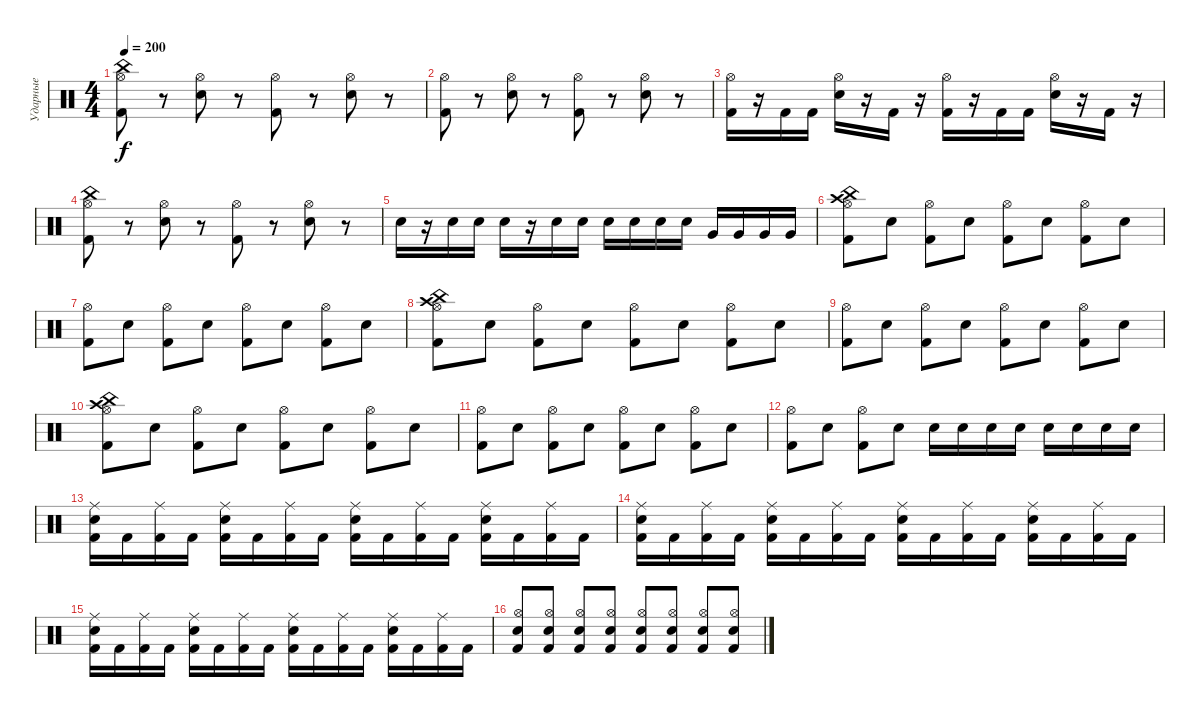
\track ("Ударные" "Ударные") {instrument percussion}
\staff {score}
\articulation defaults
\ts (4 4)
\tempo 200
\clef neutral
\ks c
("Kick (hit) 2" "Hi-Hat (open)" "China (hit)").8{dy f} r.8 ("Electric Snare (hit)" "Hi-Hat (open)").8 r.8 ("Kick (hit) 2" "Hi-Hat (open)").8 r.8 ("Electric Snare (hit)" "Hi-Hat (open)").8 r.8 |
("Kick (hit) 2" "Hi-Hat (open)").8 r.8 ("Electric Snare (hit)" "Hi-Hat (open)").8 r.8 ("Kick (hit) 2" "Hi-Hat (open)").8 r.8 ("Electric Snare (hit)" "Hi-Hat (open)").8 r.8 |
("Kick (hit) 2" "Hi-Hat (open)").16 r.16 "Kick (hit) 2".16 "Kick (hit) 2".16 ("Electric Snare (hit)" "Hi-Hat (open)").16 r.16 "Kick (hit) 2".16 r.16 ("Kick (hit) 2" "Hi-Hat (open)").16 r.16 "Kick (hit) 2".16 "Kick (hit) 2".16 ("Electric Snare (hit)" "Hi-Hat (open)").16 r.16 "Kick (hit) 2".16 r.16 |
("Kick (hit) 2" "Hi-Hat (open)" "China (hit)").8 r.8 ("Electric Snare (hit)" "Hi-Hat (open)").8 r.8 ("Kick (hit) 2" "Hi-Hat (open)").8 r.8 ("Electric Snare (hit)" "Hi-Hat (open)").8 r.8 |
"Electric Snare (hit)".16 r.16 "Electric Snare (hit)".16 "Electric Snare (hit)".16 "Electric Snare (hit)".16 r.16 "Electric Snare (hit)".16 "Electric Snare (hit)".16 "Snare (hit) 2".16 "Snare (hit) 2".16 "Snare (hit) 2".16 "Snare (hit) 2".16 "Very Low Tom (hit)".16 "Very Low Tom (hit)".16 "Very Low Tom (hit)".16 "Very Low Tom (hit)".16 |
("Kick (hit) 2" "Hi-Hat (open)" "Crash high (hit)" "China (hit)").8 "Electric Snare (hit)".8 ("Kick (hit) 2" "Hi-Hat (open)").8 "Electric Snare (hit)".8 ("Kick (hit) 2" "Hi-Hat (open)").8 "Electric Snare (hit)".8 ("Kick (hit) 2" "Hi-Hat (open)").8 "Electric Snare (hit)".8 |
("Kick (hit) 2" "Hi-Hat (open)").8 "Electric Snare (hit)".8 ("Kick (hit) 2" "Hi-Hat (open)").8 "Electric Snare (hit)".8 ("Kick (hit) 2" "Hi-Hat (open)").8 "Electric Snare (hit)".8 ("Kick (hit) 2" "Hi-Hat (open)").8 "Electric Snare (hit)".8 |
("Kick (hit) 2" "Hi-Hat (open)" "Crash high (hit)" "China (hit)").8 "Electric Snare (hit)".8 ("Kick (hit) 2" "Hi-Hat (open)").8 "Electric Snare (hit)".8 ("Kick (hit) 2" "Hi-Hat (open)").8 "Electric Snare (hit)".8 ("Kick (hit) 2" "Hi-Hat (open)").8 "Electric Snare (hit)".8 |
("Kick (hit) 2" "Hi-Hat (open)").8 "Electric Snare (hit)".8 ("Kick (hit) 2" "Hi-Hat (open)").8 "Electric Snare (hit)".8 ("Kick (hit) 2" "Hi-Hat (open)").8 "Electric Snare (hit)".8 ("Kick (hit) 2" "Hi-Hat (open)").8 "Electric Snare (hit)".8 |
("Kick (hit) 2" "Hi-Hat (open)" "Crash high (hit)" "China (hit)").8 "Electric Snare (hit)".8 ("Kick (hit) 2" "Hi-Hat (open)").8 "Electric Snare (hit)".8 ("Kick (hit) 2" "Hi-Hat (open)").8 "Electric Snare (hit)".8 ("Kick (hit) 2" "Hi-Hat (open)").8 "Electric Snare (hit)".8 |
("Kick (hit) 2" "Hi-Hat (open)").8 "Electric Snare (hit)".8 ("Kick (hit) 2" "Hi-Hat (open)").8 "Electric Snare (hit)".8 ("Kick (hit) 2" "Hi-Hat (open)").8 "Electric Snare (hit)".8 ("Kick (hit) 2" "Hi-Hat (open)").8 "Electric Snare (hit)".8 |
("Kick (hit) 2" "Hi-Hat (open)").8 "Electric Snare (hit)".8 ("Kick (hit) 2" "Hi-Hat (open)").8 "Electric Snare (hit)".8 "Electric Snare (hit)".16 "Electric Snare (hit)".16 "Snare (hit) 2".16 "Snare (hit) 2".16 "Electric Snare (hit)".16 "Electric Snare (hit)".16 "Snare (hit) 2".16 "Snare (hit) 2".16 |
("Kick (hit) 2" "Electric Snare (hit)" "Ride (middle)").16 "Kick (hit) 2".16 ("Kick (hit) 2" "Ride (middle)").16 "Kick (hit) 2".16 ("Kick (hit) 2" "Electric Snare (hit)" "Ride (middle)").16 "Kick (hit) 2".16 ("Kick (hit) 2" "Ride (middle)").16 "Kick (hit) 2".16 ("Kick (hit) 2" "Electric Snare (hit)" "Ride (middle)").16 "Kick (hit) 2".16 ("Kick (hit) 2" "Ride (middle)").16 "Kick (hit) 2".16 ("Kick (hit) 2" "Electric Snare (hit)" "Ride (middle)").16 "Kick (hit) 2".16 ("Kick (hit) 2" "Ride (middle)").16 "Kick (hit) 2".16 |
("Kick (hit) 2" "Electric Snare (hit)" "Ride (middle)").16 "Kick (hit) 2".16 ("Kick (hit) 2" "Ride (middle)").16 "Kick (hit) 2".16 ("Kick (hit) 2" "Electric Snare (hit)" "Ride (middle)").16 "Kick (hit) 2".16 ("Kick (hit) 2" "Ride (middle)").16 "Kick (hit) 2".16 ("Kick (hit) 2" "Electric Snare (hit)" "Ride (middle)").16 "Kick (hit) 2".16 ("Kick (hit) 2" "Ride (middle)").16 "Kick (hit) 2".16 ("Kick (hit) 2" "Electric Snare (hit)" "Ride (middle)").16 "Kick (hit) 2".16 ("Kick (hit) 2" "Ride (middle)").16 "Kick (hit) 2".16 |
("Kick (hit) 2" "Electric Snare (hit)" "Ride (middle)").16 "Kick (hit) 2".16 ("Kick (hit) 2" "Ride (middle)").16 "Kick (hit) 2".16 ("Kick (hit) 2" "Electric Snare (hit)" "Ride (middle)").16 "Kick (hit) 2".16 ("Kick (hit) 2" "Ride (middle)").16 "Kick (hit) 2".16 ("Kick (hit) 2" "Electric Snare (hit)" "Ride (middle)").16 "Kick (hit) 2".16 ("Kick (hit) 2" "Ride (middle)").16 "Kick (hit) 2".16 ("Kick (hit) 2" "Electric Snare (hit)" "Ride (middle)").16 "Kick (hit) 2".16 ("Kick (hit) 2" "Ride (middle)").16 "Kick (hit) 2".16 |
("Kick (hit) 2" "Electric Snare (hit)" "Hi-Hat (open)").8 ("Hi-Hat (open)" "Kick (hit) 2" "Electric Snare (hit)").8 ("Electric Snare (hit)" "Kick (hit) 2" "Hi-Hat (open)").8 ("Hi-Hat (open)" "Kick (hit) 2" "Electric Snare (hit)").8 ("Electric Snare (hit)" "Kick (hit) 2" "Hi-Hat (open)").8 ("Hi-Hat (open)" "Kick (hit) 2" "Electric Snare (hit)").8 ("Electric Snare (hit)" "Kick (hit) 2" "Hi-Hat (open)").8 ("Hi-Hat (open)" "Kick (hit) 2" "Electric Snare (hit)").8
